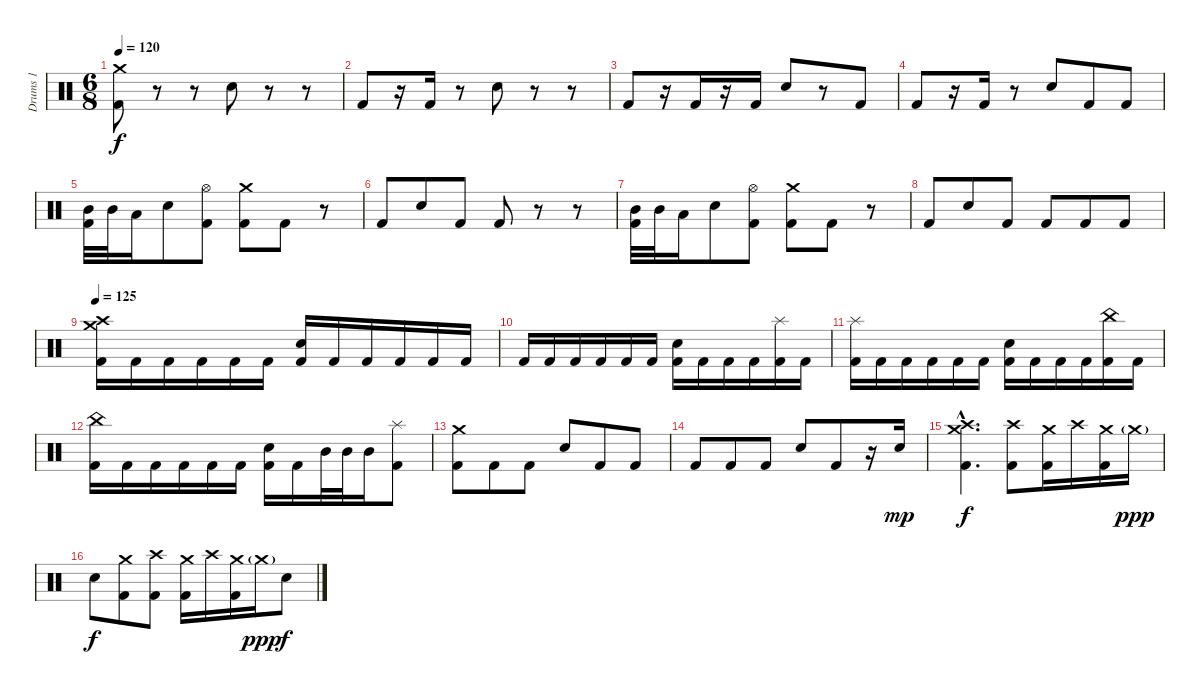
\track ("Drums 1" "Drums 1") {instrument percussion}
\staff {score}
\articulation defaults
\ts (6 8)
\tempo 120
\clef neutral
\ks c
("Crash medium (hit)" "Kick (hit) 2").8{dy f} r.8 r.8 "Snare (hit) 2".8 r.8 r.8 |
"Kick (hit) 2".8 r.16 "Kick (hit) 2".16 r.8 "Snare (hit) 2".8 r.8 r.8 |
"Kick (hit) 2".8 r.16 "Kick (hit) 2".16 r.16 "Kick (hit) 2".16 "Snare (hit) 2".8 r.8 "Kick (hit) 2".8 |
"Kick (hit) 2".8 r.16 "Kick (hit) 2".16 r.8 "Snare (hit) 2".8 "Kick (hit) 2".8 "Kick (hit) 2".8 |
("Mid Tom (hit)" "Kick (hit) 2").32 "Mid Tom (hit)".32 "Low Tom (hit)".16 "Snare (hit) 2".8 ("Hi-Hat (open)" "Kick (hit) 2").8 ("Crash medium (hit)" "Kick (hit) 2").8 "Kick (hit) 2".8 r.8 |
"Kick (hit) 2".8 "Snare (hit) 2".8 "Kick (hit) 2".8 "Kick (hit) 2".8 r.8 r.8 |
("Mid Tom (hit)" "Kick (hit) 2").32 "Mid Tom (hit)".32 "Low Tom (hit)".16 "Snare (hit) 2".8 ("Hi-Hat (open)" "Kick (hit) 2").8 ("Crash medium (hit)" "Kick (hit) 2").8 "Kick (hit) 2".8 r.8 |
"Kick (hit) 2".8 "Snare (hit) 2".8 "Kick (hit) 2".8 "Kick (hit) 2".8 "Kick (hit) 2".8 "Kick (hit) 2".8 |
\tempo 125
("Crash high (hit)" "Crash medium (hit)" "Kick (hit) 2").16 "Kick (hit) 2".16 "Kick (hit) 2".16 "Kick (hit) 2".16 "Kick (hit) 2".16 "Kick (hit) 2".16 ("Snare (hit) 2" "Kick (hit) 2").16 "Kick (hit) 2".16 "Kick (hit) 2".16 "Kick (hit) 2".16 "Kick (hit) 2".16 "Kick (hit) 2".16 |
"Kick (hit) 2".16 "Kick (hit) 2".16 "Kick (hit) 2".16 "Kick (hit) 2".16 "Kick (hit) 2".16 "Kick (hit) 2".16 ("Snare (hit) 2" "Kick (hit) 2").16 "Kick (hit) 2".16 "Kick (hit) 2".16 "Kick (hit) 2".16 ("Splash (hit)" "Kick (hit) 2").16 "Kick (hit) 2".16 |
("Splash (hit)" "Kick (hit) 2").16 "Kick (hit) 2".16 "Kick (hit) 2".16 "Kick (hit) 2".16 "Kick (hit) 2".16 "Kick (hit) 2".16 ("Snare (hit) 2" "Kick (hit) 2").16 "Kick (hit) 2".16 "Kick (hit) 2".16 "Kick (hit) 2".16 ("China (hit)" "Kick (hit) 2").16 "Kick (hit) 2".16 |
("China (hit)" "Kick (hit) 2").16 "Kick (hit) 2".16 "Kick (hit) 2".16 "Kick (hit) 2".16 "Kick (hit) 2".16 "Kick (hit) 2".16 ("Snare (hit) 2" "Kick (hit) 2").16 "Kick (hit) 2".16 "Mid Tom (hit)".32 "Mid Tom (hit)".32 "Mid Tom (hit)".16 ("Splash (hit)" "Kick (hit) 2").8 |
("Crash medium (hit)" "Kick (hit) 2").8 "Kick (hit) 2".8 "Kick (hit) 2".8 "Snare (hit) 2".8 "Kick (hit) 2".8 "Kick (hit) 2".8 |
"Kick (hit) 2".8 "Kick (hit) 2".8 "Kick (hit) 2".8 "Snare (hit) 2".8 "Kick (hit) 2".8 r.16 "Snare (hit) 2".16{dy mp} |
("Crash medium (hit)"{hac} "Crash high (hit)"{hac} "Kick (hit) 2"{hac}).4{d dy f} ("Crash high (hit)" "Kick (hit) 2").8 ("Crash medium (hit)" "Kick (hit) 2").16 "Crash high (hit)".16 ("Crash medium (hit)" "Kick (hit) 2").16 "Crash medium (hit)"{g}.16{dy ppp} |
"Snare (hit) 2".8{dy f} ("Crash medium (hit)" "Kick (hit) 2").8 ("Crash high (hit)" "Kick (hit) 2").8 ("Crash medium (hit)" "Kick (hit) 2").16 "Crash high (hit)".16 ("Crash medium (hit)" "Kick (hit) 2").16 "Crash medium (hit)"{g}.16{dy ppp} "Snare (hit) 2".8{dy f}
